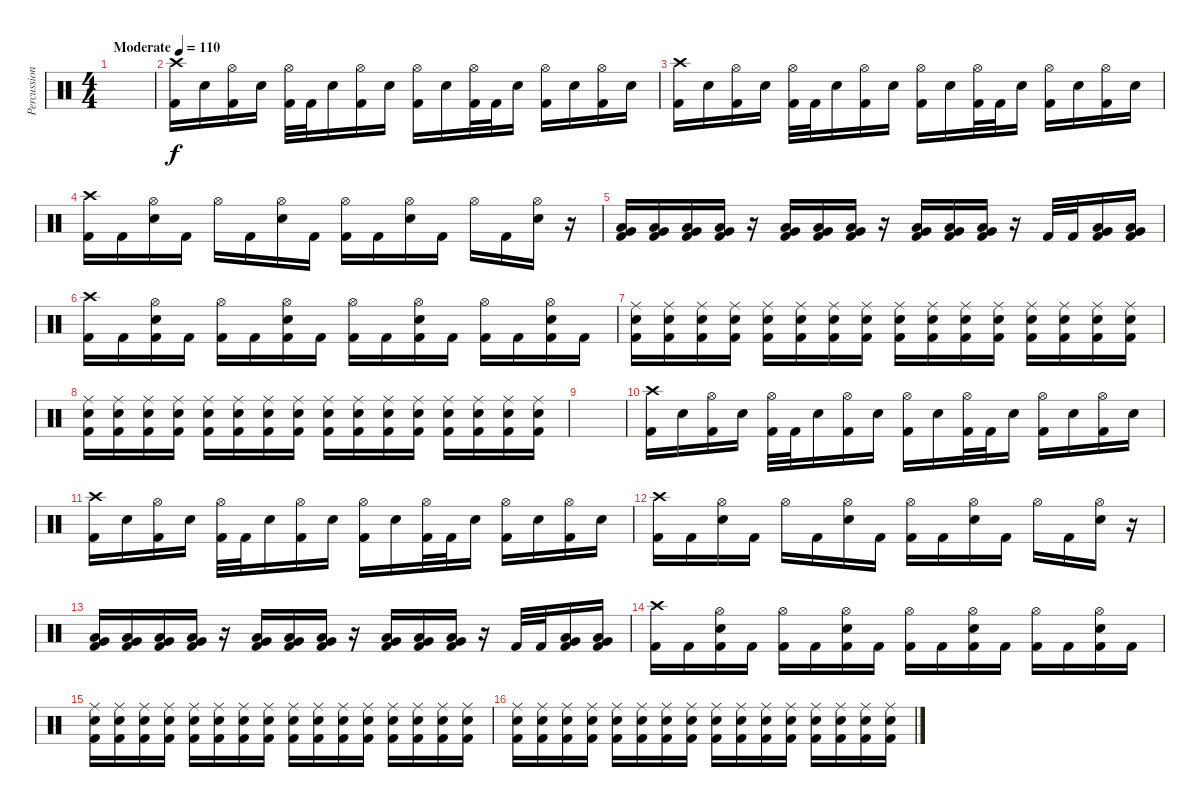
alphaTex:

\track ("Percussions" "Percussion") {instrument percussion}
\staff {score}
\articulation defaults
\ts (4 4)
\tempo (110 "Moderate")
\clef neutral
\ks c
|
("Kick (hit) 2" "Crash high (hit)").16 "Electric Snare (hit)".16 ("Kick (hit) 2" "Hi-Hat (open)").16 "Electric Snare (hit)".16 ("Kick (hit) 2" "Hi-Hat (open)").32 "Kick (hit) 2".32 "Electric Snare (hit)".16 ("Kick (hit) 2" "Hi-Hat (open)").16 "Electric Snare (hit)".16 ("Kick (hit) 2" "Hi-Hat (open)").16 "Electric Snare (hit)".16 ("Kick (hit) 2" "Hi-Hat (open)").32 "Kick (hit) 2".32 "Electric Snare (hit)".16 ("Kick (hit) 2" "Hi-Hat (open)").16 "Electric Snare (hit)".16 ("Kick (hit) 2" "Hi-Hat (open)").16 "Electric Snare (hit)".16 |
("Kick (hit) 2" "Crash high (hit)").16 "Electric Snare (hit)".16 ("Kick (hit) 2" "Hi-Hat (open)").16 "Electric Snare (hit)".16 ("Kick (hit) 2" "Hi-Hat (open)").32 "Kick (hit) 2".32 "Electric Snare (hit)".16 ("Kick (hit) 2" "Hi-Hat (open)").16 "Electric Snare (hit)".16 ("Kick (hit) 2" "Hi-Hat (open)").16 "Electric Snare (hit)".16 ("Kick (hit) 2" "Hi-Hat (open)").32 "Kick (hit) 2".32 "Electric Snare (hit)".16 ("Kick (hit) 2" "Hi-Hat (open)").16 "Electric Snare (hit)".16 ("Kick (hit) 2" "Hi-Hat (open)").16 "Electric Snare (hit)".16 |
("Kick (hit) 2" "Crash high (hit)").16 "Kick (hit) 2".16 ("Electric Snare (hit)" "Hi-Hat (open)").16 "Kick (hit) 2".16 "Hi-Hat (open)".16 "Kick (hit) 2".16 ("Electric Snare (hit)" "Hi-Hat (open)").16 "Kick (hit) 2".16 ("Kick (hit) 2" "Hi-Hat (open)").16 "Kick (hit) 2".16 ("Electric Snare (hit)" "Hi-Hat (open)").16 "Kick (hit) 2".16 "Hi-Hat (open)".16 "Kick (hit) 2".16 ("Electric Snare (hit)" "Hi-Hat (open)").16 r.16 |
("Kick (hit) 2" "Low Floor Tom (hit)" "Very Low Tom (hit)").16 ("Kick (hit) 2" "Low Floor Tom (hit)" "Very Low Tom (hit)").16 ("Kick (hit) 2" "Low Floor Tom (hit)" "Very Low Tom (hit)").16 ("Kick (hit) 2" "Low Floor Tom (hit)" "Very Low Tom (hit)").16 r.16 ("Kick (hit) 2" "Low Floor Tom (hit)" "Very Low Tom (hit)").16 ("Kick (hit) 2" "Low Floor Tom (hit)" "Very Low Tom (hit)").16 ("Kick (hit) 2" "Low Floor Tom (hit)" "Very Low Tom (hit)").16 r.16 ("Kick (hit) 2" "Low Floor Tom (hit)" "Very Low Tom (hit)").16 ("Kick (hit) 2" "Low Floor Tom (hit)" "Very Low Tom (hit)").16 ("Kick (hit) 2" "Low Floor Tom (hit)" "Very Low Tom (hit)").16 r.16 "Kick (hit) 2".32 "Kick (hit) 2".32 ("Kick (hit) 2" "Low Floor Tom (hit)" "Very Low Tom (hit)").16 ("Kick (hit) 2" "Low Floor Tom (hit)" "Very Low Tom (hit)").16 |
("Kick (hit) 2" "Crash high (hit)").16 "Kick (hit) 2".16 ("Kick (hit) 2" "Electric Snare (hit)" "Hi-Hat (open)").16 "Kick (hit) 2".16 ("Kick (hit) 2" "Hi-Hat (open)").16 "Kick (hit) 2".16 ("Kick (hit) 2" "Electric Snare (hit)" "Hi-Hat (open)").16 "Kick (hit) 2".16 ("Kick (hit) 2" "Hi-Hat (open)").16 "Kick (hit) 2".16 ("Kick (hit) 2" "Electric Snare (hit)" "Hi-Hat (open)").16 "Kick (hit) 2".16 ("Kick (hit) 2" "Hi-Hat (open)").16 "Kick (hit) 2".16 ("Kick (hit) 2" "Electric Snare (hit)" "Hi-Hat (open)").16 "Kick (hit) 2".16 |
("Kick (hit) 2" "Electric Snare (hit)" "Ride (middle)").16 ("Kick (hit) 2" "Electric Snare (hit)" "Ride (middle)").16 ("Kick (hit) 2" "Electric Snare (hit)" "Ride (middle)").16 ("Kick (hit) 2" "Electric Snare (hit)" "Ride (middle)").16 ("Kick (hit) 2" "Electric Snare (hit)" "Ride (middle)").16 ("Kick (hit) 2" "Electric Snare (hit)" "Ride (middle)").16 ("Kick (hit) 2" "Electric Snare (hit)" "Ride (middle)").16 ("Kick (hit) 2" "Electric Snare (hit)" "Ride (middle)").16 ("Kick (hit) 2" "Electric Snare (hit)" "Ride (middle)").16 ("Kick (hit) 2" "Electric Snare (hit)" "Ride (middle)").16 ("Kick (hit) 2" "Electric Snare (hit)" "Ride (middle)").16 ("Kick (hit) 2" "Electric Snare (hit)" "Ride (middle)").16 ("Kick (hit) 2" "Electric Snare (hit)" "Ride (middle)").16 ("Kick (hit) 2" "Electric Snare (hit)" "Ride (middle)").16 ("Kick (hit) 2" "Electric Snare (hit)" "Ride (middle)").16 ("Kick (hit) 2" "Electric Snare (hit)" "Ride (middle)").16 |
("Kick (hit) 2" "Electric Snare (hit)" "Ride (middle)").16 ("Kick (hit) 2" "Electric Snare (hit)" "Ride (middle)").16 ("Kick (hit) 2" "Electric Snare (hit)" "Ride (middle)").16 ("Kick (hit) 2" "Electric Snare (hit)" "Ride (middle)").16 ("Kick (hit) 2" "Electric Snare (hit)" "Ride (middle)").16 ("Kick (hit) 2" "Electric Snare (hit)" "Ride (middle)").16 ("Kick (hit) 2" "Electric Snare (hit)" "Ride (middle)").16 ("Kick (hit) 2" "Electric Snare (hit)" "Ride (middle)").16 ("Kick (hit) 2" "Electric Snare (hit)" "Ride (middle)").16 ("Kick (hit) 2" "Electric Snare (hit)" "Ride (middle)").16 ("Kick (hit) 2" "Electric Snare (hit)" "Ride (middle)").16 ("Kick (hit) 2" "Electric Snare (hit)" "Ride (middle)").16 ("Kick (hit) 2" "Electric Snare (hit)" "Ride (middle)").16 ("Kick (hit) 2" "Electric Snare (hit)" "Ride (middle)").16 ("Kick (hit) 2" "Electric Snare (hit)" "Ride (middle)").16 ("Kick (hit) 2" "Electric Snare (hit)" "Ride (middle)").16 |
|
("Kick (hit) 2" "Crash high (hit)").16 "Electric Snare (hit)".16 ("Kick (hit) 2" "Hi-Hat (open)").16 "Electric Snare (hit)".16 ("Kick (hit) 2" "Hi-Hat (open)").32 "Kick (hit) 2".32 "Electric Snare (hit)".16 ("Kick (hit) 2" "Hi-Hat (open)").16 "Electric Snare (hit)".16 ("Kick (hit) 2" "Hi-Hat (open)").16 "Electric Snare (hit)".16 ("Kick (hit) 2" "Hi-Hat (open)").32 "Kick (hit) 2".32 "Electric Snare (hit)".16 ("Kick (hit) 2" "Hi-Hat (open)").16 "Electric Snare (hit)".16 ("Kick (hit) 2" "Hi-Hat (open)").16 "Electric Snare (hit)".16 |
("Kick (hit) 2" "Crash high (hit)").16 "Electric Snare (hit)".16 ("Kick (hit) 2" "Hi-Hat (open)").16 "Electric Snare (hit)".16 ("Kick (hit) 2" "Hi-Hat (open)").32 "Kick (hit) 2".32 "Electric Snare (hit)".16 ("Kick (hit) 2" "Hi-Hat (open)").16 "Electric Snare (hit)".16 ("Kick (hit) 2" "Hi-Hat (open)").16 "Electric Snare (hit)".16 ("Kick (hit) 2" "Hi-Hat (open)").32 "Kick (hit) 2".32 "Electric Snare (hit)".16 ("Kick (hit) 2" "Hi-Hat (open)").16 "Electric Snare (hit)".16 ("Kick (hit) 2" "Hi-Hat (open)").16 "Electric Snare (hit)".16 |
("Kick (hit) 2" "Crash high (hit)").16 "Kick (hit) 2".16 ("Electric Snare (hit)" "Hi-Hat (open)").16 "Kick (hit) 2".16 "Hi-Hat (open)".16 "Kick (hit) 2".16 ("Electric Snare (hit)" "Hi-Hat (open)").16 "Kick (hit) 2".16 ("Kick (hit) 2" "Hi-Hat (open)").16 "Kick (hit) 2".16 ("Electric Snare (hit)" "Hi-Hat (open)").16 "Kick (hit) 2".16 "Hi-Hat (open)".16 "Kick (hit) 2".16 ("Electric Snare (hit)" "Hi-Hat (open)").16 r.16 |
("Kick (hit) 2" "Low Floor Tom (hit)" "Very Low Tom (hit)").16 ("Kick (hit) 2" "Low Floor Tom (hit)" "Very Low Tom (hit)").16 ("Kick (hit) 2" "Low Floor Tom (hit)" "Very Low Tom (hit)").16 ("Kick (hit) 2" "Low Floor Tom (hit)" "Very Low Tom (hit)").16 r.16 ("Kick (hit) 2" "Low Floor Tom (hit)" "Very Low Tom (hit)").16 ("Kick (hit) 2" "Low Floor Tom (hit)" "Very Low Tom (hit)").16 ("Kick (hit) 2" "Low Floor Tom (hit)" "Very Low Tom (hit)").16 r.16 ("Kick (hit) 2" "Low Floor Tom (hit)" "Very Low Tom (hit)").16 ("Kick (hit) 2" "Low Floor Tom (hit)" "Very Low Tom (hit)").16 ("Kick (hit) 2" "Low Floor Tom (hit)" "Very Low Tom (hit)").16 r.16 "Kick (hit) 2".32 "Kick (hit) 2".32 ("Kick (hit) 2" "Low Floor Tom (hit)" "Very Low Tom (hit)").16 ("Kick (hit) 2" "Low Floor Tom (hit)" "Very Low Tom (hit)").16 |
("Kick (hit) 2" "Crash high (hit)").16 "Kick (hit) 2".16 ("Kick (hit) 2" "Electric Snare (hit)" "Hi-Hat (open)").16 "Kick (hit) 2".16 ("Kick (hit) 2" "Hi-Hat (open)").16 "Kick (hit) 2".16 ("Kick (hit) 2" "Electric Snare (hit)" "Hi-Hat (open)").16 "Kick (hit) 2".16 ("Kick (hit) 2" "Hi-Hat (open)").16 "Kick (hit) 2".16 ("Kick (hit) 2" "Electric Snare (hit)" "Hi-Hat (open)").16 "Kick (hit) 2".16 ("Kick (hit) 2" "Hi-Hat (open)").16 "Kick (hit) 2".16 ("Kick (hit) 2" "Electric Snare (hit)" "Hi-Hat (open)").16 "Kick (hit) 2".16 |
("Kick (hit) 2" "Electric Snare (hit)" "Ride (middle)").16 ("Kick (hit) 2" "Electric Snare (hit)" "Ride (middle)").16 ("Kick (hit) 2" "Electric Snare (hit)" "Ride (middle)").16 ("Kick (hit) 2" "Electric Snare (hit)" "Ride (middle)").16 ("Kick (hit) 2" "Electric Snare (hit)" "Ride (middle)").16 ("Kick (hit) 2" "Electric Snare (hit)" "Ride (middle)").16 ("Kick (hit) 2" "Electric Snare (hit)" "Ride (middle)").16 ("Kick (hit) 2" "Electric Snare (hit)" "Ride (middle)").16 ("Kick (hit) 2" "Electric Snare (hit)" "Ride (middle)").16 ("Kick (hit) 2" "Electric Snare (hit)" "Ride (middle)").16 ("Kick (hit) 2" "Electric Snare (hit)" "Ride (middle)").16 ("Kick (hit) 2" "Electric Snare (hit)" "Ride (middle)").16 ("Kick (hit) 2" "Electric Snare (hit)" "Ride (middle)").16 ("Kick (hit) 2" "Electric Snare (hit)" "Ride (middle)").16 ("Kick (hit) 2" "Electric Snare (hit)" "Ride (middle)").16 ("Kick (hit) 2" "Electric Snare (hit)" "Ride (middle)").16 |
("Kick (hit) 2" "Electric Snare (hit)" "Ride (middle)").16 ("Kick (hit) 2" "Electric Snare (hit)" "Ride (middle)").16 ("Kick (hit) 2" "Electric Snare (hit)" "Ride (middle)").16 ("Kick (hit) 2" "Electric Snare (hit)" "Ride (middle)").16 ("Kick (hit) 2" "Electric Snare (hit)" "Ride (middle)").16 ("Kick (hit) 2" "Electric Snare (hit)" "Ride (middle)").16 ("Kick (hit) 2" "Electric Snare (hit)" "Ride (middle)").16 ("Kick (hit) 2" "Electric Snare (hit)" "Ride (middle)").16 ("Kick (hit) 2" "Electric Snare (hit)" "Ride (middle)").16 ("Kick (hit) 2" "Electric Snare (hit)" "Ride (middle)").16 ("Kick (hit) 2" "Electric Snare (hit)" "Ride (middle)").16 ("Kick (hit) 2" "Electric Snare (hit)" "Ride (middle)").16 ("Kick (hit) 2" "Electric Snare (hit)" "Ride (middle)").16 ("Kick (hit) 2" "Electric Snare (hit)" "Ride (middle)").16 ("Kick (hit) 2" "Electric Snare (hit)" "Ride (middle)").16 ("Kick (hit) 2" "Electric Snare (hit)" "Ride (middle)").16
